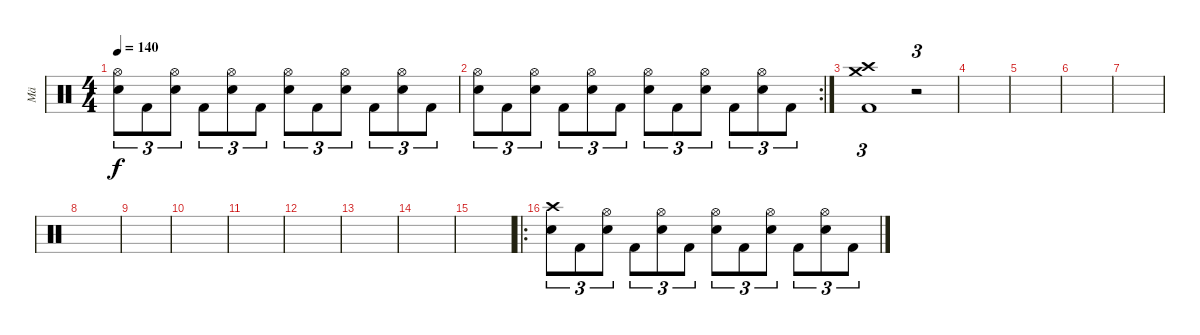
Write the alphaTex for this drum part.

\track ("Mä" "Mä") {instrument percussion}
\staff {score}
\articulation defaults
\ts (4 4)
\tempo 140
\clef neutral
\ks c
("Hi-Hat (open)" "Snare (hit) 2").8{tu (3 2) dy f} "Kick (hit) 2".8{tu (3 2)} ("Hi-Hat (open)" "Snare (hit) 2").8{tu (3 2)} "Kick (hit) 2".8{tu (3 2)} ("Hi-Hat (open)" "Snare (hit) 2").8{tu (3 2)} "Kick (hit) 2".8{tu (3 2)} ("Hi-Hat (open)" "Snare (hit) 2").8{tu (3 2)} "Kick (hit) 2".8{tu (3 2)} ("Hi-Hat (open)" "Snare (hit) 2").8{tu (3 2)} "Kick (hit) 2".8{tu (3 2)} ("Hi-Hat (open)" "Snare (hit) 2").8{tu (3 2)} "Kick (hit) 2".8{tu (3 2)} |
\rc 2
("Hi-Hat (open)" "Snare (hit) 2").8{tu (3 2)} "Kick (hit) 2".8{tu (3 2)} ("Hi-Hat (open)" "Snare (hit) 2").8{tu (3 2)} "Kick (hit) 2".8{tu (3 2)} ("Hi-Hat (open)" "Snare (hit) 2").8{tu (3 2)} "Kick (hit) 2".8{tu (3 2)} ("Hi-Hat (open)" "Snare (hit) 2").8{tu (3 2)} "Kick (hit) 2".8{tu (3 2)} ("Hi-Hat (open)" "Snare (hit) 2").8{tu (3 2)} "Kick (hit) 2".8{tu (3 2)} ("Hi-Hat (open)" "Snare (hit) 2").8{tu (3 2)} "Kick (hit) 2".8{tu (3 2)} |
("Crash medium (hit)" "Crash high (hit)" "Kick (hit) 2").1{tu (3 2)} r.2{tu (3 2)} |
|
|
|
|
|
|
|
|
|
|
|
|
\ro
("Crash high (hit)" "Snare (hit) 2").8{tu (3 2)} "Kick (hit) 2".8{tu (3 2)} ("Hi-Hat (open)" "Snare (hit) 2").8{tu (3 2)} "Kick (hit) 2".8{tu (3 2)} ("Hi-Hat (open)" "Snare (hit) 2").8{tu (3 2)} "Kick (hit) 2".8{tu (3 2)} ("Hi-Hat (open)" "Snare (hit) 2").8{tu (3 2)} "Kick (hit) 2".8{tu (3 2)} ("Hi-Hat (open)" "Snare (hit) 2").8{tu (3 2)} "Kick (hit) 2".8{tu (3 2)} ("Hi-Hat (open)" "Snare (hit) 2").8{tu (3 2)} "Kick (hit) 2".8{tu (3 2)}
